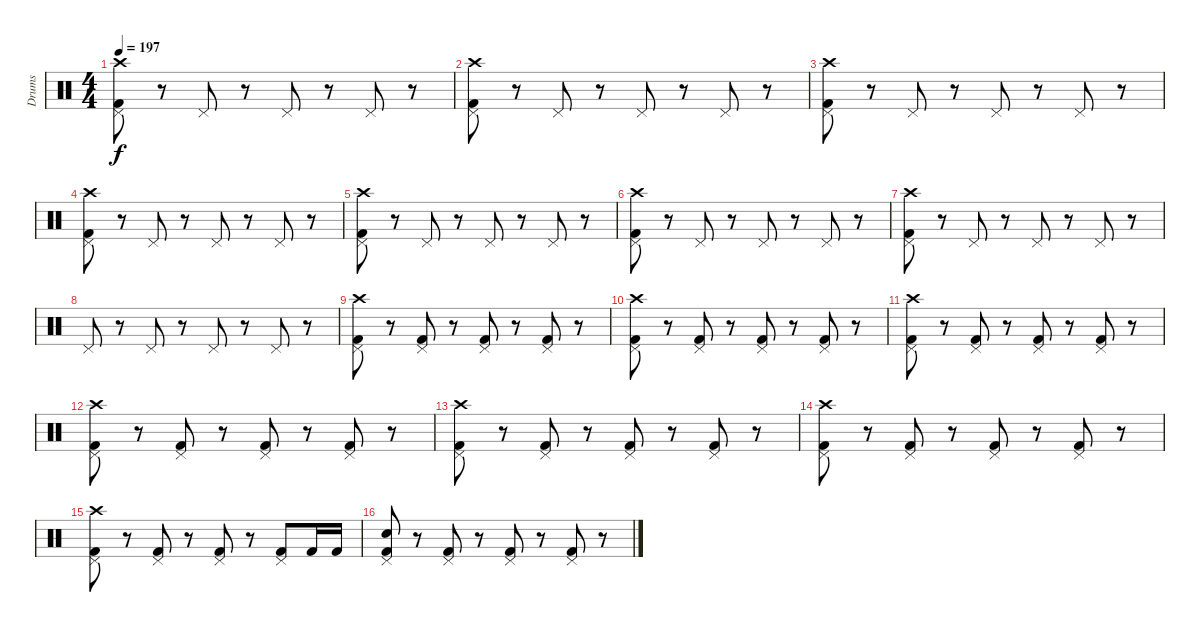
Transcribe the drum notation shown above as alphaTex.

\track ("Drums" "Drums") {instrument percussion}
\staff {score}
\articulation defaults
\ts (4 4)
\tempo 197
\clef neutral
\ks c
("Kick (hit) 2" "Pedal Hi-Hat (hit)" "Crash high (hit)").8{dy f} r.8 "Pedal Hi-Hat (hit)".8 r.8 "Pedal Hi-Hat (hit)".8 r.8 "Pedal Hi-Hat (hit)".8 r.8 |
("Kick (hit) 2" "Pedal Hi-Hat (hit)" "Crash high (hit)").8 r.8 "Pedal Hi-Hat (hit)".8 r.8 "Pedal Hi-Hat (hit)".8 r.8 "Pedal Hi-Hat (hit)".8 r.8 |
("Kick (hit) 2" "Pedal Hi-Hat (hit)" "Crash high (hit)").8 r.8 "Pedal Hi-Hat (hit)".8 r.8 "Pedal Hi-Hat (hit)".8 r.8 "Pedal Hi-Hat (hit)".8 r.8 |
("Kick (hit) 2" "Pedal Hi-Hat (hit)" "Crash high (hit)").8 r.8 "Pedal Hi-Hat (hit)".8 r.8 "Pedal Hi-Hat (hit)".8 r.8 "Pedal Hi-Hat (hit)".8 r.8 |
("Kick (hit) 2" "Pedal Hi-Hat (hit)" "Crash high (hit)").8 r.8 "Pedal Hi-Hat (hit)".8 r.8 "Pedal Hi-Hat (hit)".8 r.8 "Pedal Hi-Hat (hit)".8 r.8 |
("Kick (hit) 2" "Pedal Hi-Hat (hit)" "Crash high (hit)").8 r.8 "Pedal Hi-Hat (hit)".8 r.8 "Pedal Hi-Hat (hit)".8 r.8 "Pedal Hi-Hat (hit)".8 r.8 |
("Kick (hit) 2" "Pedal Hi-Hat (hit)" "Crash high (hit)").8 r.8 "Pedal Hi-Hat (hit)".8 r.8 "Pedal Hi-Hat (hit)".8 r.8 "Pedal Hi-Hat (hit)".8 r.8 |
"Pedal Hi-Hat (hit)".8 r.8 "Pedal Hi-Hat (hit)".8 r.8 "Pedal Hi-Hat (hit)".8 r.8 "Pedal Hi-Hat (hit)".8 r.8 |
("Kick (hit) 2" "Pedal Hi-Hat (hit)" "Crash high (hit)").8 r.8 ("Kick (hit) 2" "Pedal Hi-Hat (hit)").8 r.8 ("Kick (hit) 2" "Pedal Hi-Hat (hit)").8 r.8 ("Kick (hit) 2" "Pedal Hi-Hat (hit)").8 r.8 |
("Kick (hit) 2" "Pedal Hi-Hat (hit)" "Crash high (hit)").8 r.8 ("Kick (hit) 2" "Pedal Hi-Hat (hit)").8 r.8 ("Kick (hit) 2" "Pedal Hi-Hat (hit)").8 r.8 ("Kick (hit) 2" "Pedal Hi-Hat (hit)").8 r.8 |
("Kick (hit) 2" "Pedal Hi-Hat (hit)" "Crash high (hit)").8 r.8 ("Kick (hit) 2" "Pedal Hi-Hat (hit)").8 r.8 ("Kick (hit) 2" "Pedal Hi-Hat (hit)").8 r.8 ("Kick (hit) 2" "Pedal Hi-Hat (hit)").8 r.8 |
("Kick (hit) 2" "Pedal Hi-Hat (hit)" "Crash high (hit)").8 r.8 ("Kick (hit) 2" "Pedal Hi-Hat (hit)").8 r.8 ("Kick (hit) 2" "Pedal Hi-Hat (hit)").8 r.8 ("Kick (hit) 2" "Pedal Hi-Hat (hit)").8 r.8 |
("Kick (hit) 2" "Pedal Hi-Hat (hit)" "Crash high (hit)").8 r.8 ("Kick (hit) 2" "Pedal Hi-Hat (hit)").8 r.8 ("Kick (hit) 2" "Pedal Hi-Hat (hit)").8 r.8 ("Kick (hit) 2" "Pedal Hi-Hat (hit)").8 r.8 |
("Kick (hit) 2" "Pedal Hi-Hat (hit)" "Crash high (hit)").8 r.8 ("Kick (hit) 2" "Pedal Hi-Hat (hit)").8 r.8 ("Kick (hit) 2" "Pedal Hi-Hat (hit)").8 r.8 ("Kick (hit) 2" "Pedal Hi-Hat (hit)").8 r.8 |
("Kick (hit) 2" "Pedal Hi-Hat (hit)" "Crash high (hit)").8 r.8 ("Kick (hit) 2" "Pedal Hi-Hat (hit)").8 r.8 ("Kick (hit) 2" "Pedal Hi-Hat (hit)").8 r.8 ("Kick (hit) 2" "Pedal Hi-Hat (hit)").8 "Kick (hit) 2".16 "Kick (hit) 2".16 |
("Kick (hit) 2" "Snare (hit) 2" "Pedal Hi-Hat (hit)").8 r.8 ("Kick (hit) 2" "Pedal Hi-Hat (hit)").8 r.8 ("Kick (hit) 2" "Pedal Hi-Hat (hit)").8 r.8 ("Kick (hit) 2" "Pedal Hi-Hat (hit)").8 r.8
